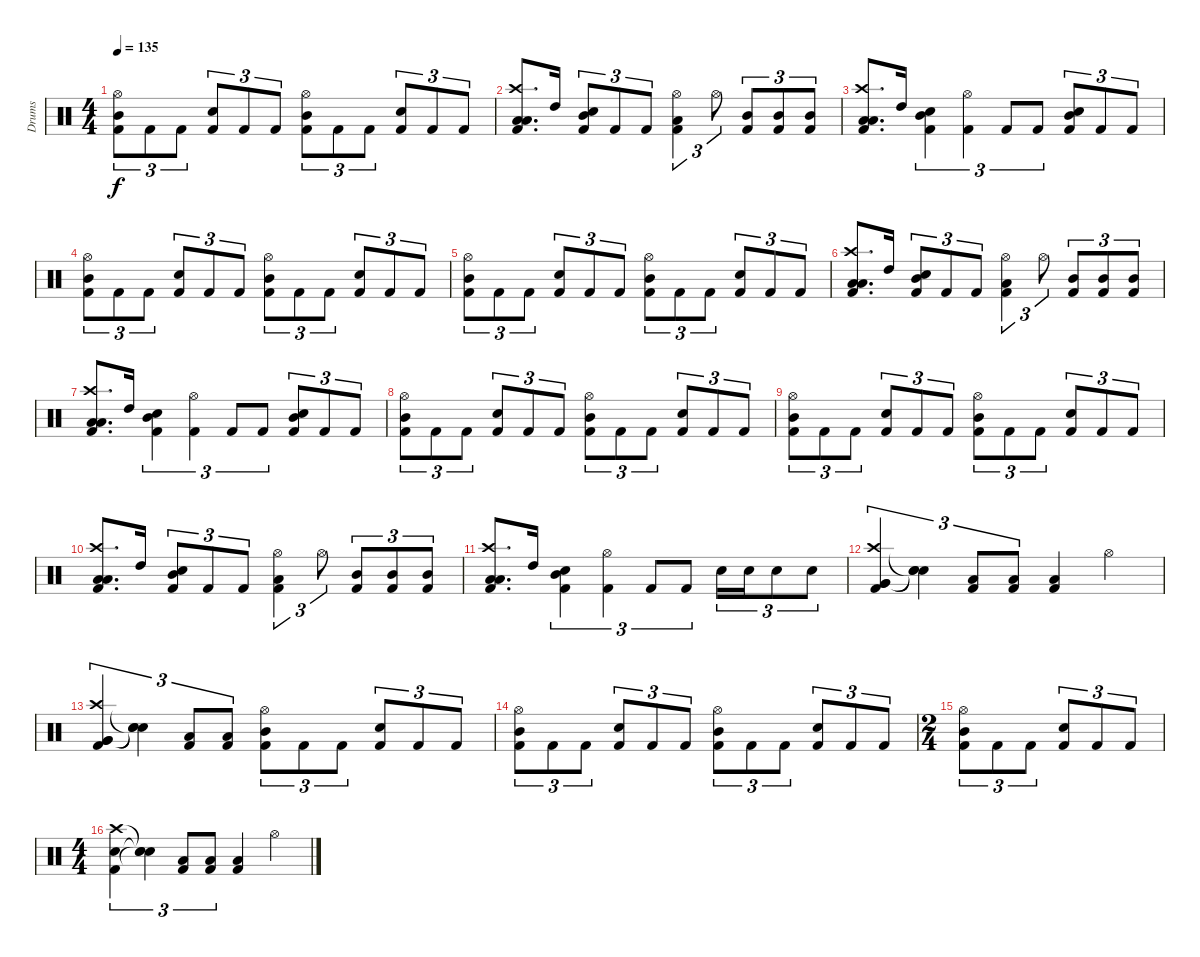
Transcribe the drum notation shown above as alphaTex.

\track ("Drums" "Drums") {instrument percussion}
\staff {score}
\articulation defaults
\ts (4 4)
\tempo 135
\clef neutral
\ks c
("Hi-Hat (open)" "Mid Tom (hit)" "Kick (hit) 2").8{tu (3 2) dy f} "Kick (hit) 2".8{tu (3 2)} "Kick (hit) 2".8{tu (3 2)} ("Snare (hit) 2" "Kick (hit) 2").8{tu (3 2)} "Kick (hit) 2".8{tu (3 2)} "Kick (hit) 2".8{tu (3 2)} ("Hi-Hat (open)" "Mid Tom (hit)" "Kick (hit) 2").8{tu (3 2)} "Kick (hit) 2".8{tu (3 2)} "Kick (hit) 2".8{tu (3 2)} ("Snare (hit) 2" "Kick (hit) 2").8{tu (3 2)} "Kick (hit) 2".8{tu (3 2)} "Kick (hit) 2".8{tu (3 2)} |
("Crash high (hit)" "Low Tom (hit)" "Low Tom (hit)" "Kick (hit) 2").8{d} "High Tom (hit)".16 ("Mid Tom (hit)" "Snare (hit) 2" "Kick (hit) 2").8{tu (3 2)} "Kick (hit) 2".8{tu (3 2)} "Kick (hit) 2".8{tu (3 2)} ("Hi-Hat (open)" "Low Tom (hit)" "Kick (hit) 2").4{tu (3 2)} "Hi-Hat (open)".8{tu (3 2)} ("Mid Tom (hit)" "Kick (hit) 2").8{tu (3 2)} ("Mid Tom (hit)" "Kick (hit) 2").8{tu (3 2)} ("Mid Tom (hit)" "Kick (hit) 2").8{tu (3 2)} |
("Crash high (hit)" "Low Tom (hit)" "Low Tom (hit)" "Kick (hit) 2").8{d} "High Tom (hit)".16 ("Mid Tom (hit)" "Snare (hit) 2" "Kick (hit) 2").4{tu (3 2)} ("Hi-Hat (open)" "Kick (hit) 2").4{tu (3 2)} "Kick (hit) 2".8{tu (3 2)} "Kick (hit) 2".8{tu (3 2)} ("Mid Tom (hit)" "Snare (hit) 2" "Kick (hit) 2").8{tu (3 2)} "Kick (hit) 2".8{tu (3 2)} "Kick (hit) 2".8{tu (3 2)} |
("Hi-Hat (open)" "Mid Tom (hit)" "Kick (hit) 2").8{tu (3 2)} "Kick (hit) 2".8{tu (3 2)} "Kick (hit) 2".8{tu (3 2)} ("Snare (hit) 2" "Kick (hit) 2").8{tu (3 2)} "Kick (hit) 2".8{tu (3 2)} "Kick (hit) 2".8{tu (3 2)} ("Hi-Hat (open)" "Mid Tom (hit)" "Kick (hit) 2").8{tu (3 2)} "Kick (hit) 2".8{tu (3 2)} "Kick (hit) 2".8{tu (3 2)} ("Snare (hit) 2" "Kick (hit) 2").8{tu (3 2)} "Kick (hit) 2".8{tu (3 2)} "Kick (hit) 2".8{tu (3 2)} |
("Hi-Hat (open)" "Mid Tom (hit)" "Kick (hit) 2").8{tu (3 2)} "Kick (hit) 2".8{tu (3 2)} "Kick (hit) 2".8{tu (3 2)} ("Snare (hit) 2" "Kick (hit) 2").8{tu (3 2)} "Kick (hit) 2".8{tu (3 2)} "Kick (hit) 2".8{tu (3 2)} ("Hi-Hat (open)" "Mid Tom (hit)" "Kick (hit) 2").8{tu (3 2)} "Kick (hit) 2".8{tu (3 2)} "Kick (hit) 2".8{tu (3 2)} ("Snare (hit) 2" "Kick (hit) 2").8{tu (3 2)} "Kick (hit) 2".8{tu (3 2)} "Kick (hit) 2".8{tu (3 2)} |
("Crash high (hit)" "Low Tom (hit)" "Low Tom (hit)" "Kick (hit) 2").8{d} "High Tom (hit)".16 ("Mid Tom (hit)" "Snare (hit) 2" "Kick (hit) 2").8{tu (3 2)} "Kick (hit) 2".8{tu (3 2)} "Kick (hit) 2".8{tu (3 2)} ("Hi-Hat (open)" "Low Tom (hit)" "Kick (hit) 2").4{tu (3 2)} "Hi-Hat (open)".8{tu (3 2)} ("Mid Tom (hit)" "Kick (hit) 2").8{tu (3 2)} ("Mid Tom (hit)" "Kick (hit) 2").8{tu (3 2)} ("Mid Tom (hit)" "Kick (hit) 2").8{tu (3 2)} |
("Crash high (hit)" "Low Tom (hit)" "Low Tom (hit)" "Kick (hit) 2").8{d} "High Tom (hit)".16 ("Mid Tom (hit)" "Snare (hit) 2" "Kick (hit) 2").4{tu (3 2)} ("Hi-Hat (open)" "Kick (hit) 2").4{tu (3 2)} "Kick (hit) 2".8{tu (3 2)} "Kick (hit) 2".8{tu (3 2)} ("Mid Tom (hit)" "Snare (hit) 2" "Kick (hit) 2").8{tu (3 2)} "Kick (hit) 2".8{tu (3 2)} "Kick (hit) 2".8{tu (3 2)} |
("Hi-Hat (open)" "Mid Tom (hit)" "Kick (hit) 2").8{tu (3 2)} "Kick (hit) 2".8{tu (3 2)} "Kick (hit) 2".8{tu (3 2)} ("Snare (hit) 2" "Kick (hit) 2").8{tu (3 2)} "Kick (hit) 2".8{tu (3 2)} "Kick (hit) 2".8{tu (3 2)} ("Hi-Hat (open)" "Mid Tom (hit)" "Kick (hit) 2").8{tu (3 2)} "Kick (hit) 2".8{tu (3 2)} "Kick (hit) 2".8{tu (3 2)} ("Snare (hit) 2" "Kick (hit) 2").8{tu (3 2)} "Kick (hit) 2".8{tu (3 2)} "Kick (hit) 2".8{tu (3 2)} |
("Hi-Hat (open)" "Mid Tom (hit)" "Kick (hit) 2").8{tu (3 2)} "Kick (hit) 2".8{tu (3 2)} "Kick (hit) 2".8{tu (3 2)} ("Snare (hit) 2" "Kick (hit) 2").8{tu (3 2)} "Kick (hit) 2".8{tu (3 2)} "Kick (hit) 2".8{tu (3 2)} ("Hi-Hat (open)" "Mid Tom (hit)" "Kick (hit) 2").8{tu (3 2)} "Kick (hit) 2".8{tu (3 2)} "Kick (hit) 2".8{tu (3 2)} ("Snare (hit) 2" "Kick (hit) 2").8{tu (3 2)} "Kick (hit) 2".8{tu (3 2)} "Kick (hit) 2".8{tu (3 2)} |
("Crash high (hit)" "Low Tom (hit)" "Low Tom (hit)" "Kick (hit) 2").8{d} "High Tom (hit)".16 ("Mid Tom (hit)" "Snare (hit) 2" "Kick (hit) 2").8{tu (3 2)} "Kick (hit) 2".8{tu (3 2)} "Kick (hit) 2".8{tu (3 2)} ("Hi-Hat (open)" "Low Tom (hit)" "Kick (hit) 2").4{tu (3 2)} "Hi-Hat (open)".8{tu (3 2)} ("Mid Tom (hit)" "Kick (hit) 2").8{tu (3 2)} ("Mid Tom (hit)" "Kick (hit) 2").8{tu (3 2)} ("Mid Tom (hit)" "Kick (hit) 2").8{tu (3 2)} |
("Crash high (hit)" "Low Tom (hit)" "Low Tom (hit)" "Kick (hit) 2").8{d} "High Tom (hit)".16 ("Mid Tom (hit)" "Snare (hit) 2" "Kick (hit) 2").4{tu (3 2)} ("Hi-Hat (open)" "Kick (hit) 2").4{tu (3 2)} "Kick (hit) 2".8{tu (3 2)} "Kick (hit) 2".8{tu (3 2)} "Snare (hit) 2".16{tu (3 2)} "Snare (hit) 2".16{tu (3 2)} "Snare (hit) 2".8{tu (3 2)} "Snare (hit) 2".8{tu (3 2)} |
("Crash high (hit)" "Very Low Tom (hit)" "Very Low Tom (hit)" "Kick (hit) 2").4{tu (3 2)} ("Snare (hit)"{t} "Snare (hit)"{t} "Snare (hit)"{t}).4{tu (3 2)} ("Low Tom (hit)" "Kick (hit) 2").8{tu (3 2)} ("Low Tom (hit)" "Kick (hit) 2").8{tu (3 2)} ("Low Tom (hit)" "Kick (hit) 2").4 "Hi-Hat (open)".4 |
("Crash high (hit)" "Very Low Tom (hit)" "Very Low Tom (hit)" "Kick (hit) 2").4{tu (3 2)} ("Snare (hit)"{t} "Snare (hit)"{t} "Snare (hit)"{t}).4{tu (3 2)} ("Low Tom (hit)" "Kick (hit) 2").8{tu (3 2)} ("Low Tom (hit)" "Kick (hit) 2").8{tu (3 2)} ("Hi-Hat (open)" "Mid Tom (hit)" "Kick (hit) 2").8{tu (3 2)} "Kick (hit) 2".8{tu (3 2)} "Kick (hit) 2".8{tu (3 2)} ("Snare (hit) 2" "Kick (hit) 2").8{tu (3 2)} "Kick (hit) 2".8{tu (3 2)} "Kick (hit) 2".8{tu (3 2)} |
("Hi-Hat (open)" "Mid Tom (hit)" "Kick (hit) 2").8{tu (3 2)} "Kick (hit) 2".8{tu (3 2)} "Kick (hit) 2".8{tu (3 2)} ("Snare (hit) 2" "Kick (hit) 2").8{tu (3 2)} "Kick (hit) 2".8{tu (3 2)} "Kick (hit) 2".8{tu (3 2)} ("Hi-Hat (open)" "Mid Tom (hit)" "Kick (hit) 2").8{tu (3 2)} "Kick (hit) 2".8{tu (3 2)} "Kick (hit) 2".8{tu (3 2)} ("Snare (hit) 2" "Kick (hit) 2").8{tu (3 2)} "Kick (hit) 2".8{tu (3 2)} "Kick (hit) 2".8{tu (3 2)} |
\ts (2 4)
("Hi-Hat (open)" "Mid Tom (hit)" "Kick (hit) 2").8{tu (3 2)} "Kick (hit) 2".8{tu (3 2)} "Kick (hit) 2".8{tu (3 2)} ("Snare (hit) 2" "Kick (hit) 2").8{tu (3 2)} "Kick (hit) 2".8{tu (3 2)} "Kick (hit) 2".8{tu (3 2)} |
\ts (4 4)
("Crash high (hit)" "Snare (hit) 2" "Kick (hit) 2").4{tu (3 2)} ("Snare (hit)"{t} "Snare (hit)"{t} "Snare (hit)"{t}).4{tu (3 2)} ("Low Tom (hit)" "Kick (hit) 2").8{tu (3 2)} ("Low Tom (hit)" "Kick (hit) 2").8{tu (3 2)} ("Low Tom (hit)" "Kick (hit) 2").4 "Hi-Hat (open)".4
